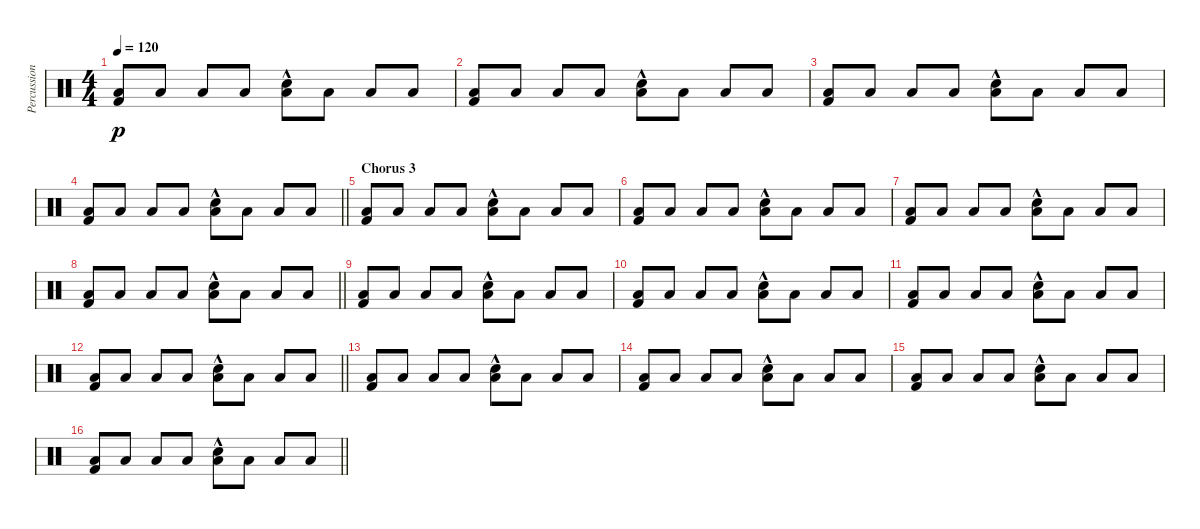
\track ("Percussion" "Percussion") {instrument percussion}
\staff {score}
\articulation defaults
\ts (4 4)
\tempo 120
\clef neutral
\ks c
("Kick (hit) 2" "Low Floor Tom (hit)").8{dy p} "Low Floor Tom (hit)".8 "Low Floor Tom (hit)".8 "Low Floor Tom (hit)".8 ("Snare (hit) 2"{hac} "Low Floor Tom (hit)").8 "Low Floor Tom (hit)".8 "Low Floor Tom (hit)".8 "Low Floor Tom (hit)".8 |
("Kick (hit) 2" "Low Floor Tom (hit)").8 "Low Floor Tom (hit)".8 "Low Floor Tom (hit)".8 "Low Floor Tom (hit)".8 ("Snare (hit) 2"{hac} "Low Floor Tom (hit)").8 "Low Floor Tom (hit)".8 "Low Floor Tom (hit)".8 "Low Floor Tom (hit)".8 |
("Kick (hit) 2" "Low Floor Tom (hit)").8 "Low Floor Tom (hit)".8 "Low Floor Tom (hit)".8 "Low Floor Tom (hit)".8 ("Snare (hit) 2"{hac} "Low Floor Tom (hit)").8 "Low Floor Tom (hit)".8 "Low Floor Tom (hit)".8 "Low Floor Tom (hit)".8 |
\barLineRight lightlight
("Kick (hit) 2" "Low Floor Tom (hit)").8 "Low Floor Tom (hit)".8 "Low Floor Tom (hit)".8 "Low Floor Tom (hit)".8 ("Snare (hit) 2"{hac} "Low Floor Tom (hit)").8 "Low Floor Tom (hit)".8 "Low Floor Tom (hit)".8 "Low Floor Tom (hit)".8 |
\section ("" "Chorus 3")
("Kick (hit) 2" "Low Floor Tom (hit)").8 "Low Floor Tom (hit)".8 "Low Floor Tom (hit)".8 "Low Floor Tom (hit)".8 ("Snare (hit) 2"{hac} "Low Floor Tom (hit)").8 "Low Floor Tom (hit)".8 "Low Floor Tom (hit)".8 "Low Floor Tom (hit)".8 |
("Kick (hit) 2" "Low Floor Tom (hit)").8 "Low Floor Tom (hit)".8 "Low Floor Tom (hit)".8 "Low Floor Tom (hit)".8 ("Snare (hit) 2"{hac} "Low Floor Tom (hit)").8 "Low Floor Tom (hit)".8 "Low Floor Tom (hit)".8 "Low Floor Tom (hit)".8 |
("Kick (hit) 2" "Low Floor Tom (hit)").8 "Low Floor Tom (hit)".8 "Low Floor Tom (hit)".8 "Low Floor Tom (hit)".8 ("Snare (hit) 2"{hac} "Low Floor Tom (hit)").8 "Low Floor Tom (hit)".8 "Low Floor Tom (hit)".8 "Low Floor Tom (hit)".8 |
\barLineRight lightlight
("Kick (hit) 2" "Low Floor Tom (hit)").8 "Low Floor Tom (hit)".8 "Low Floor Tom (hit)".8 "Low Floor Tom (hit)".8 ("Snare (hit) 2"{hac} "Low Floor Tom (hit)").8 "Low Floor Tom (hit)".8 "Low Floor Tom (hit)".8 "Low Floor Tom (hit)".8 |
("Kick (hit) 2" "Low Floor Tom (hit)").8 "Low Floor Tom (hit)".8 "Low Floor Tom (hit)".8 "Low Floor Tom (hit)".8 ("Snare (hit) 2"{hac} "Low Floor Tom (hit)").8 "Low Floor Tom (hit)".8 "Low Floor Tom (hit)".8 "Low Floor Tom (hit)".8 |
("Kick (hit) 2" "Low Floor Tom (hit)").8 "Low Floor Tom (hit)".8 "Low Floor Tom (hit)".8 "Low Floor Tom (hit)".8 ("Snare (hit) 2"{hac} "Low Floor Tom (hit)").8 "Low Floor Tom (hit)".8 "Low Floor Tom (hit)".8 "Low Floor Tom (hit)".8 |
("Kick (hit) 2" "Low Floor Tom (hit)").8 "Low Floor Tom (hit)".8 "Low Floor Tom (hit)".8 "Low Floor Tom (hit)".8 ("Snare (hit) 2"{hac} "Low Floor Tom (hit)").8 "Low Floor Tom (hit)".8 "Low Floor Tom (hit)".8 "Low Floor Tom (hit)".8 |
\barLineRight lightlight
("Kick (hit) 2" "Low Floor Tom (hit)").8 "Low Floor Tom (hit)".8 "Low Floor Tom (hit)".8 "Low Floor Tom (hit)".8 ("Snare (hit) 2"{hac} "Low Floor Tom (hit)").8 "Low Floor Tom (hit)".8 "Low Floor Tom (hit)".8 "Low Floor Tom (hit)".8 |
("Kick (hit) 2" "Low Floor Tom (hit)").8 "Low Floor Tom (hit)".8 "Low Floor Tom (hit)".8 "Low Floor Tom (hit)".8 ("Snare (hit) 2"{hac} "Low Floor Tom (hit)").8 "Low Floor Tom (hit)".8 "Low Floor Tom (hit)".8 "Low Floor Tom (hit)".8 |
("Kick (hit) 2" "Low Floor Tom (hit)").8 "Low Floor Tom (hit)".8 "Low Floor Tom (hit)".8 "Low Floor Tom (hit)".8 ("Snare (hit) 2"{hac} "Low Floor Tom (hit)").8 "Low Floor Tom (hit)".8 "Low Floor Tom (hit)".8 "Low Floor Tom (hit)".8 |
("Kick (hit) 2" "Low Floor Tom (hit)").8 "Low Floor Tom (hit)".8 "Low Floor Tom (hit)".8 "Low Floor Tom (hit)".8 ("Snare (hit) 2"{hac} "Low Floor Tom (hit)").8 "Low Floor Tom (hit)".8 "Low Floor Tom (hit)".8 "Low Floor Tom (hit)".8 |
\barLineRight lightlight
("Kick (hit) 2" "Low Floor Tom (hit)").8 "Low Floor Tom (hit)".8 "Low Floor Tom (hit)".8 "Low Floor Tom (hit)".8 ("Snare (hit) 2"{hac} "Low Floor Tom (hit)").8 "Low Floor Tom (hit)".8 "Low Floor Tom (hit)".8 "Low Floor Tom (hit)".8
